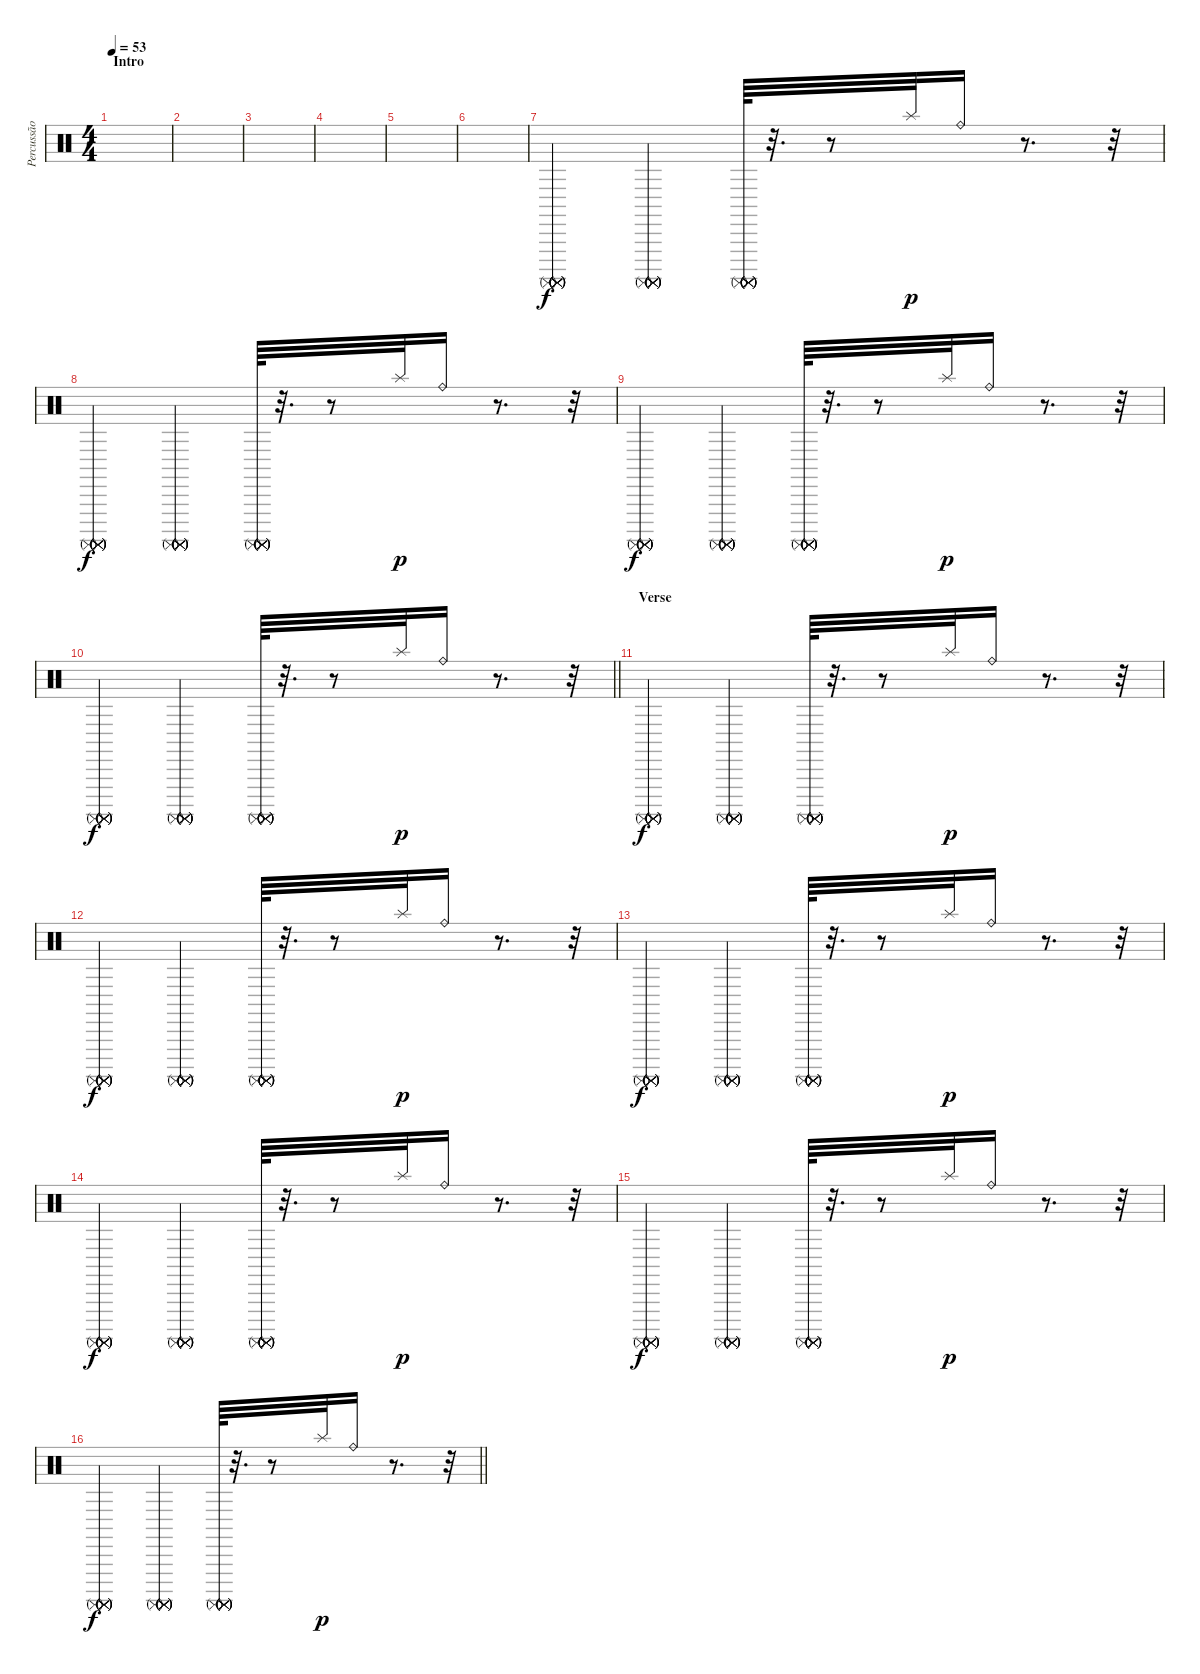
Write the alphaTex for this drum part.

\track ("Percussão" "Percussão") {instrument percussion}
\staff {score}
\articulation defaults
\ts (4 4)
\section ("" "Intro")
\tempo 53
\clef neutral
\ks c
|
|
|
|
|
|
("Surdo (mute)" "Surdo (mute)" "Surdo (mute)" "Surdo (mute)" "Surdo (mute)" "Surdo (mute)").4 ("Surdo (mute)" "Surdo (mute)" "Surdo (mute)" "Surdo (mute)" "Surdo (mute)" "Surdo (mute)").4 ("Surdo (mute)" "Surdo (mute)" "Surdo (mute)" "Surdo (mute)" "Surdo (mute)" "Surdo (mute)").64 r.32{d} r.8 "Splash (hit)".32{dy p} "Ride (bell)".16 r.8{d} r.32 |
("Surdo (mute)" "Surdo (mute)" "Surdo (mute)" "Surdo (mute)" "Surdo (mute)" "Surdo (mute)").4{dy f} ("Surdo (mute)" "Surdo (mute)" "Surdo (mute)" "Surdo (mute)" "Surdo (mute)" "Surdo (mute)").4 ("Surdo (mute)" "Surdo (mute)" "Surdo (mute)" "Surdo (mute)" "Surdo (mute)" "Surdo (mute)").64 r.32{d} r.8 "Splash (hit)".32{dy p} "Ride (bell)".16 r.8{d} r.32 |
("Surdo (mute)" "Surdo (mute)" "Surdo (mute)" "Surdo (mute)" "Surdo (mute)" "Surdo (mute)").4{dy f} ("Surdo (mute)" "Surdo (mute)" "Surdo (mute)" "Surdo (mute)" "Surdo (mute)" "Surdo (mute)").4 ("Surdo (mute)" "Surdo (mute)" "Surdo (mute)" "Surdo (mute)" "Surdo (mute)" "Surdo (mute)").64 r.32{d} r.8 "Splash (hit)".32{dy p} "Ride (bell)".16 r.8{d} r.32 |
\barLineRight lightlight
("Surdo (mute)" "Surdo (mute)" "Surdo (mute)" "Surdo (mute)" "Surdo (mute)" "Surdo (mute)").4{dy f} ("Surdo (mute)" "Surdo (mute)" "Surdo (mute)" "Surdo (mute)" "Surdo (mute)" "Surdo (mute)").4 ("Surdo (mute)" "Surdo (mute)" "Surdo (mute)" "Surdo (mute)" "Surdo (mute)" "Surdo (mute)").64 r.32{d} r.8 "Splash (hit)".32{dy p} "Ride (bell)".16 r.8{d} r.32 |
\section ("" "Verse")
("Surdo (mute)" "Surdo (mute)" "Surdo (mute)" "Surdo (mute)" "Surdo (mute)" "Surdo (mute)").4{dy f} ("Surdo (mute)" "Surdo (mute)" "Surdo (mute)" "Surdo (mute)" "Surdo (mute)" "Surdo (mute)").4 ("Surdo (mute)" "Surdo (mute)" "Surdo (mute)" "Surdo (mute)" "Surdo (mute)" "Surdo (mute)").64 r.32{d} r.8 "Splash (hit)".32{dy p} "Ride (bell)".16 r.8{d} r.32 |
("Surdo (mute)" "Surdo (mute)" "Surdo (mute)" "Surdo (mute)" "Surdo (mute)" "Surdo (mute)").4{dy f} ("Surdo (mute)" "Surdo (mute)" "Surdo (mute)" "Surdo (mute)" "Surdo (mute)" "Surdo (mute)").4 ("Surdo (mute)" "Surdo (mute)" "Surdo (mute)" "Surdo (mute)" "Surdo (mute)" "Surdo (mute)").64 r.32{d} r.8 "Splash (hit)".32{dy p} "Ride (bell)".16 r.8{d} r.32 |
("Surdo (mute)" "Surdo (mute)" "Surdo (mute)" "Surdo (mute)" "Surdo (mute)" "Surdo (mute)").4{dy f} ("Surdo (mute)" "Surdo (mute)" "Surdo (mute)" "Surdo (mute)" "Surdo (mute)" "Surdo (mute)").4 ("Surdo (mute)" "Surdo (mute)" "Surdo (mute)" "Surdo (mute)" "Surdo (mute)" "Surdo (mute)").64 r.32{d} r.8 "Splash (hit)".32{dy p} "Ride (bell)".16 r.8{d} r.32 |
("Surdo (mute)" "Surdo (mute)" "Surdo (mute)" "Surdo (mute)" "Surdo (mute)" "Surdo (mute)").4{dy f} ("Surdo (mute)" "Surdo (mute)" "Surdo (mute)" "Surdo (mute)" "Surdo (mute)" "Surdo (mute)").4 ("Surdo (mute)" "Surdo (mute)" "Surdo (mute)" "Surdo (mute)" "Surdo (mute)" "Surdo (mute)").64 r.32{d} r.8 "Splash (hit)".32{dy p} "Ride (bell)".16 r.8{d} r.32 |
("Surdo (mute)" "Surdo (mute)" "Surdo (mute)" "Surdo (mute)" "Surdo (mute)" "Surdo (mute)").4{dy f} ("Surdo (mute)" "Surdo (mute)" "Surdo (mute)" "Surdo (mute)" "Surdo (mute)" "Surdo (mute)").4 ("Surdo (mute)" "Surdo (mute)" "Surdo (mute)" "Surdo (mute)" "Surdo (mute)" "Surdo (mute)").64 r.32{d} r.8 "Splash (hit)".32{dy p} "Ride (bell)".16 r.8{d} r.32 |
\barLineRight lightlight
("Surdo (mute)" "Surdo (mute)" "Surdo (mute)" "Surdo (mute)" "Surdo (mute)" "Surdo (mute)").4{dy f} ("Surdo (mute)" "Surdo (mute)" "Surdo (mute)" "Surdo (mute)" "Surdo (mute)" "Surdo (mute)").4 ("Surdo (mute)" "Surdo (mute)" "Surdo (mute)" "Surdo (mute)" "Surdo (mute)" "Surdo (mute)").64 r.32{d} r.8 "Splash (hit)".32{dy p} "Ride (bell)".16 r.8{d} r.32
